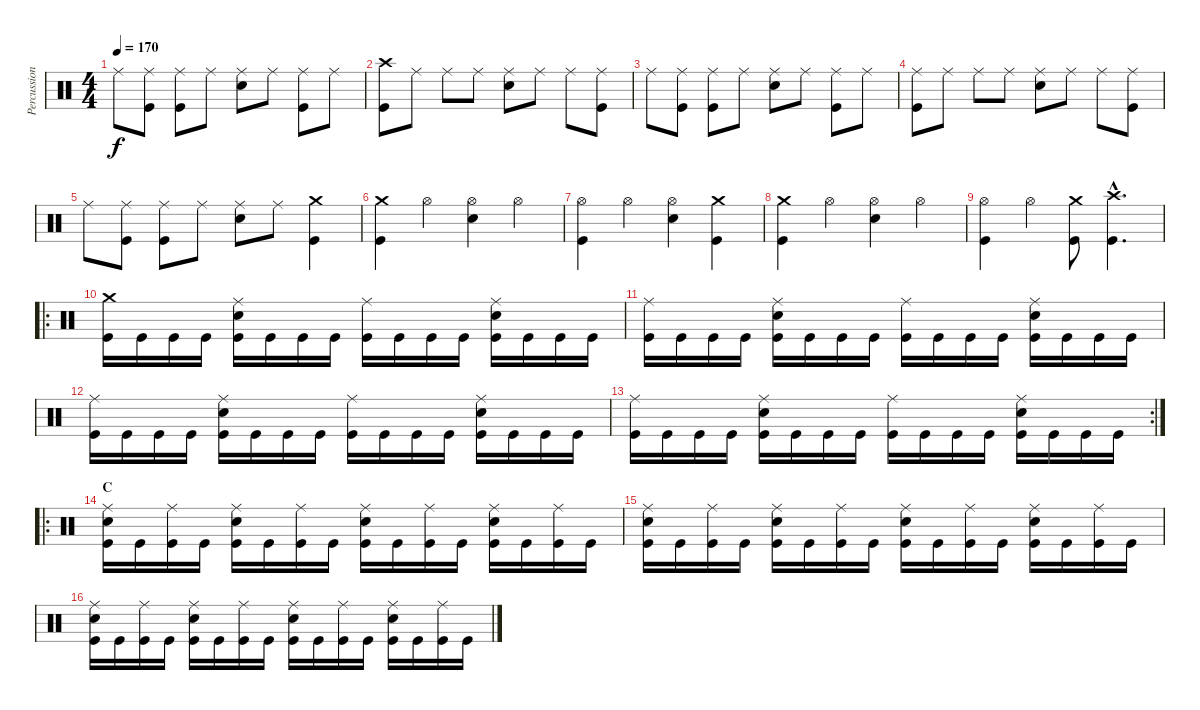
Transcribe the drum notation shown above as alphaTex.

\track ("Percussion" "Percussion") {instrument percussion}
\staff {score}
\articulation defaults
\ts (4 4)
\tempo 170
\clef neutral
\ks c "Ride (middle)".8{dy f}
("Ride (middle)" "Kick (hit)").8 ("Ride (middle)" "Kick (hit)").8 "Ride (middle)".8 ("Ride (middle)" "Electric Snare (hit)").8 "Ride (middle)".8 ("Ride (middle)" "Kick (hit)").8 "Ride (middle)".8 |
("Crash high (hit)" "Kick (hit)").8 "Ride (middle)".8 "Ride (middle)".8 "Ride (middle)".8 ("Ride (middle)" "Electric Snare (hit)").8 "Ride (middle)".8 "Ride (middle)".8 ("Ride (middle)" "Kick (hit)").8 |
"Ride (middle)".8 ("Ride (middle)" "Kick (hit)").8 ("Ride (middle)" "Kick (hit)").8 "Ride (middle)".8 ("Ride (middle)" "Electric Snare (hit)").8 "Ride (middle)".8 ("Ride (middle)" "Kick (hit)").8 "Ride (middle)".8 |
("Ride (middle)" "Kick (hit)").8 "Ride (middle)".8 "Ride (middle)".8 "Ride (middle)".8 ("Ride (middle)" "Electric Snare (hit)").8 "Ride (middle)".8 "Ride (middle)".8 ("Ride (middle)" "Kick (hit)").8 |
"Ride (middle)".8 ("Ride (middle)" "Kick (hit)").8 ("Ride (middle)" "Kick (hit)").8 "Ride (middle)".8 ("Ride (middle)" "Electric Snare (hit)").8 "Ride (middle)".8 ("Crash medium (hit)" "Kick (hit)").4 |
("Crash medium (hit)" "Kick (hit)").4 "Hi-Hat (open)".4 ("Hi-Hat (open)" "Electric Snare (hit)").4 "Hi-Hat (open)".4 |
("Hi-Hat (open)" "Kick (hit)").4 "Hi-Hat (open)".4 ("Hi-Hat (open)" "Electric Snare (hit)").4 ("Crash medium (hit)" "Kick (hit)").4 |
("Crash medium (hit)" "Kick (hit)").4 "Hi-Hat (open)".4 ("Hi-Hat (open)" "Electric Snare (hit)").4 "Hi-Hat (open)".4 |
("Hi-Hat (open)" "Kick (hit)").4 "Hi-Hat (open)".4 ("Crash medium (hit)" "Kick (hit)").8 ("Crash high (hit)"{hac} "Kick (hit)"{hac}).4{d} |
\ro
("Crash medium (hit)" "Kick (hit)").16 "Kick (hit)".16 "Kick (hit)".16 "Kick (hit)".16 ("Ride (middle)" "Electric Snare (hit)" "Kick (hit)").16 "Kick (hit)".16 "Kick (hit)".16 "Kick (hit)".16 ("Ride (middle)" "Kick (hit)").16 "Kick (hit)".16 "Kick (hit)".16 "Kick (hit)".16 ("Ride (middle)" "Electric Snare (hit)" "Kick (hit)").16 "Kick (hit)".16 "Kick (hit)".16 "Kick (hit)".16 |
("Ride (middle)" "Kick (hit)").16 "Kick (hit)".16 "Kick (hit)".16 "Kick (hit)".16 ("Ride (middle)" "Electric Snare (hit)" "Kick (hit)").16 "Kick (hit)".16 "Kick (hit)".16 "Kick (hit)".16 ("Ride (middle)" "Kick (hit)").16 "Kick (hit)".16 "Kick (hit)".16 "Kick (hit)".16 ("Ride (middle)" "Electric Snare (hit)" "Kick (hit)").16 "Kick (hit)".16 "Kick (hit)".16 "Kick (hit)".16 |
("Ride (middle)" "Kick (hit)").16 "Kick (hit)".16 "Kick (hit)".16 "Kick (hit)".16 ("Ride (middle)" "Electric Snare (hit)" "Kick (hit)").16 "Kick (hit)".16 "Kick (hit)".16 "Kick (hit)".16 ("Ride (middle)" "Kick (hit)").16 "Kick (hit)".16 "Kick (hit)".16 "Kick (hit)".16 ("Ride (middle)" "Electric Snare (hit)" "Kick (hit)").16 "Kick (hit)".16 "Kick (hit)".16 "Kick (hit)".16 |
\rc 2
("Ride (middle)" "Kick (hit)").16 "Kick (hit)".16 "Kick (hit)".16 "Kick (hit)".16 ("Ride (middle)" "Electric Snare (hit)" "Kick (hit)").16 "Kick (hit)".16 "Kick (hit)".16 "Kick (hit)".16 ("Ride (middle)" "Kick (hit)").16 "Kick (hit)".16 "Kick (hit)".16 "Kick (hit)".16 ("Ride (middle)" "Electric Snare (hit)" "Kick (hit)").16 "Kick (hit)".16 "Kick (hit)".16 "Kick (hit)".16 |
\ro
\section ("" "C")
("Ride (middle)" "Electric Snare (hit)" "Kick (hit)").16 "Kick (hit)".16 ("Ride (middle)" "Kick (hit)").16 "Kick (hit)".16 ("Ride (middle)" "Electric Snare (hit)" "Kick (hit)").16 "Kick (hit)".16 ("Ride (middle)" "Kick (hit)").16 "Kick (hit)".16 ("Ride (middle)" "Electric Snare (hit)" "Kick (hit)").16 "Kick (hit)".16 ("Ride (middle)" "Kick (hit)").16 "Kick (hit)".16 ("Ride (middle)" "Electric Snare (hit)" "Kick (hit)").16 "Kick (hit)".16 ("Ride (middle)" "Kick (hit)").16 "Kick (hit)".16 |
("Ride (middle)" "Electric Snare (hit)" "Kick (hit)").16 "Kick (hit)".16 ("Ride (middle)" "Kick (hit)").16 "Kick (hit)".16 ("Ride (middle)" "Electric Snare (hit)" "Kick (hit)").16 "Kick (hit)".16 ("Ride (middle)" "Kick (hit)").16 "Kick (hit)".16 ("Ride (middle)" "Electric Snare (hit)" "Kick (hit)").16 "Kick (hit)".16 ("Ride (middle)" "Kick (hit)").16 "Kick (hit)".16 ("Ride (middle)" "Electric Snare (hit)" "Kick (hit)").16 "Kick (hit)".16 ("Ride (middle)" "Kick (hit)").16 "Kick (hit)".16 |
("Ride (middle)" "Electric Snare (hit)" "Kick (hit)").16 "Kick (hit)".16 ("Ride (middle)" "Kick (hit)").16 "Kick (hit)".16 ("Ride (middle)" "Electric Snare (hit)" "Kick (hit)").16 "Kick (hit)".16 ("Ride (middle)" "Kick (hit)").16 "Kick (hit)".16 ("Ride (middle)" "Electric Snare (hit)" "Kick (hit)").16 "Kick (hit)".16 ("Ride (middle)" "Kick (hit)").16 "Kick (hit)".16 ("Ride (middle)" "Electric Snare (hit)" "Kick (hit)").16 "Kick (hit)".16 ("Ride (middle)" "Kick (hit)").16 "Kick (hit)".16
